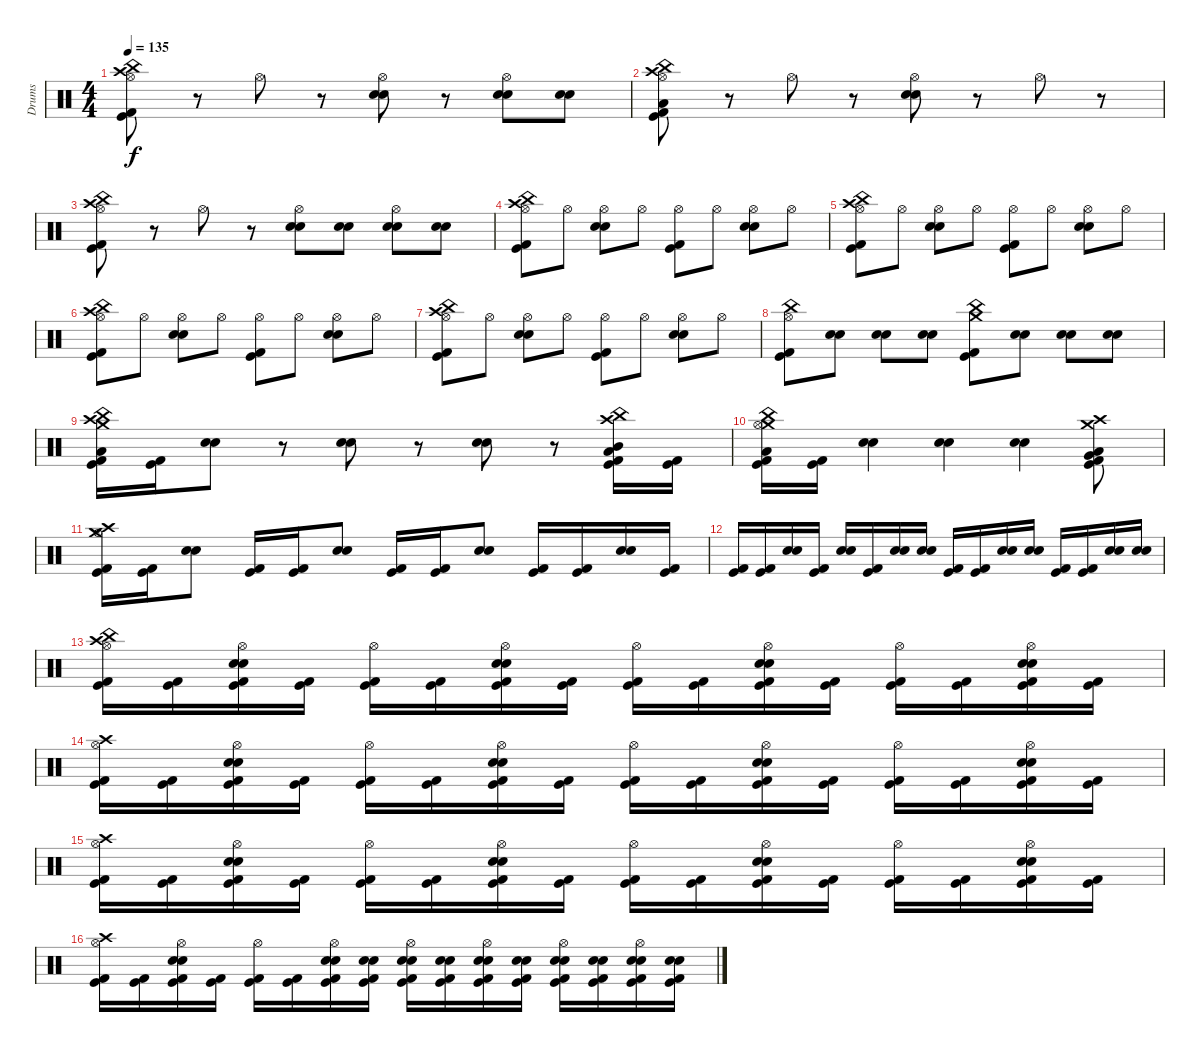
\track ("Drums" "Drums") {instrument percussion}
\staff {score}
\articulation defaults
\ts (4 4)
\tempo 135
\clef neutral
\ks c
("Crash high (hit)" "Hi-Hat (open)" "China (hit)" "Kick (hit) 2" "Kick (hit)").8{dy f} r.8 "Hi-Hat (open)".8 r.8 ("Hi-Hat (open)" "Electric Snare (hit)" "Snare (hit) 2").8 r.8 ("Hi-Hat (open)" "Electric Snare (hit)" "Snare (hit) 2").8 ("Electric Snare (hit)" "Snare (hit) 2").8 |
("Crash high (hit)" "Hi-Hat (open)" "China (hit)" "Low Floor Tom (hit)" "Kick (hit) 2" "Kick (hit)").8 r.8 "Hi-Hat (open)".8 r.8 ("Hi-Hat (open)" "Electric Snare (hit)" "Snare (hit) 2").8 r.8 "Hi-Hat (open)".8 r.8 |
("Crash high (hit)" "Hi-Hat (open)" "China (hit)" "Kick (hit) 2" "Kick (hit)").8 r.8 "Hi-Hat (open)".8 r.8 ("Hi-Hat (open)" "Electric Snare (hit)" "Snare (hit) 2").8 ("Electric Snare (hit)" "Snare (hit) 2").8 ("Hi-Hat (open)" "Electric Snare (hit)" "Snare (hit) 2").8 ("Electric Snare (hit)" "Snare (hit) 2").8 |
("Crash high (hit)" "China (hit)" "Hi-Hat (open)" "Kick (hit)" "Kick (hit) 2").8 "Hi-Hat (open)".8 ("Hi-Hat (open)" "Electric Snare (hit)" "Snare (hit) 2").8 "Hi-Hat (open)".8 ("Hi-Hat (open)" "Kick (hit) 2" "Kick (hit)").8 "Hi-Hat (open)".8 ("Hi-Hat (open)" "Electric Snare (hit)" "Snare (hit) 2").8 "Hi-Hat (open)".8 |
("Crash high (hit)" "China (hit)" "Hi-Hat (open)" "Kick (hit)" "Kick (hit) 2").8 "Hi-Hat (open)".8 ("Hi-Hat (open)" "Electric Snare (hit)" "Snare (hit) 2").8 "Hi-Hat (open)".8 ("Hi-Hat (open)" "Kick (hit) 2" "Kick (hit)").8 "Hi-Hat (open)".8 ("Hi-Hat (open)" "Electric Snare (hit)" "Snare (hit) 2").8 "Hi-Hat (open)".8 |
("Crash high (hit)" "China (hit)" "Hi-Hat (open)" "Kick (hit)" "Kick (hit) 2").8 "Hi-Hat (open)".8 ("Hi-Hat (open)" "Electric Snare (hit)" "Snare (hit) 2").8 "Hi-Hat (open)".8 ("Hi-Hat (open)" "Kick (hit) 2" "Kick (hit)").8 "Hi-Hat (open)".8 ("Hi-Hat (open)" "Electric Snare (hit)" "Snare (hit) 2").8 "Hi-Hat (open)".8 |
("Crash high (hit)" "China (hit)" "Hi-Hat (open)" "Kick (hit)" "Kick (hit) 2").8 "Hi-Hat (open)".8 ("Hi-Hat (open)" "Electric Snare (hit)" "Snare (hit) 2").8 "Hi-Hat (open)".8 ("Hi-Hat (open)" "Kick (hit) 2" "Kick (hit)").8 "Hi-Hat (open)".8 ("Hi-Hat (open)" "Electric Snare (hit)" "Snare (hit) 2").8 "Hi-Hat (open)".8 |
("Hi-Hat (open)" "China (hit)" "Kick (hit) 2" "Kick (hit)").8 ("Snare (hit) 2" "Electric Snare (hit)").8 ("Snare (hit) 2" "Electric Snare (hit)").8 ("Snare (hit) 2" "Electric Snare (hit)").8 ("Crash medium (hit)" "China (hit)" "Kick (hit) 2" "Kick (hit)").8 ("Snare (hit) 2" "Electric Snare (hit)").8 ("Snare (hit) 2" "Electric Snare (hit)").8 ("Snare (hit) 2" "Electric Snare (hit)").8 |
("Low Floor Tom (hit)" "Crash medium (hit)" "Crash high (hit)" "China (hit)" "Kick (hit) 2" "Kick (hit)").16 ("Kick (hit) 2" "Kick (hit)").16 ("Electric Snare (hit)" "Snare (hit) 2").8 r.8 ("Electric Snare (hit)" "Snare (hit) 2").8 r.8 ("Electric Snare (hit)" "Snare (hit) 2").8 r.8 ("Crash high (hit)" "China (hit)" "Mid Tom (hit)" "Low Tom (hit)" "Kick (hit) 2" "Kick (hit)").16 ("Kick (hit) 2" "Kick (hit)").16 |
("Crash medium (hit)" "China (hit)" "Hi-Hat (open)" "Low Tom (hit)" "Kick (hit) 2" "Kick (hit)").16 ("Kick (hit)" "Kick (hit) 2").16 ("Electric Snare (hit)" "Snare (hit) 2").4 ("Electric Snare (hit)" "Snare (hit) 2").4 ("Electric Snare (hit)" "Snare (hit) 2").4 ("Crash medium (hit)" "Crash high (hit)" "Very Low Tom (hit)" "Low Tom (hit)" "Kick (hit) 2" "Kick (hit)").8 |
("Crash high (hit)" "Crash medium (hit)" "Hi-Hat (open)" "Kick (hit) 2" "Kick (hit)").16 ("Kick (hit)" "Kick (hit) 2").16 ("Electric Snare (hit)" "Snare (hit) 2").8 ("Kick (hit) 2" "Kick (hit)").16 ("Kick (hit)" "Kick (hit) 2").16 ("Snare (hit) 2" "Electric Snare (hit)").8 ("Kick (hit) 2" "Kick (hit)").16 ("Kick (hit) 2" "Kick (hit)").16 ("Electric Snare (hit)" "Snare (hit) 2").8 ("Kick (hit) 2" "Kick (hit)").16 ("Kick (hit)" "Kick (hit) 2").16 ("Electric Snare (hit)" "Snare (hit) 2").16 ("Kick (hit)" "Kick (hit) 2").16 |
("Kick (hit)" "Kick (hit) 2").16 ("Kick (hit) 2" "Kick (hit)").16 ("Electric Snare (hit)" "Snare (hit) 2").16 ("Kick (hit) 2" "Kick (hit)").16 ("Electric Snare (hit)" "Snare (hit) 2").16 ("Kick (hit) 2" "Kick (hit)").16 ("Electric Snare (hit)" "Snare (hit) 2").16 ("Snare (hit) 2" "Electric Snare (hit)").16 ("Kick (hit) 2" "Kick (hit)").16 ("Kick (hit)" "Kick (hit) 2").16 ("Electric Snare (hit)" "Snare (hit) 2").16 ("Electric Snare (hit)" "Snare (hit) 2").16 ("Kick (hit)" "Kick (hit) 2").16 ("Kick (hit) 2" "Kick (hit)").16 ("Electric Snare (hit)" "Snare (hit) 2").16 ("Electric Snare (hit)" "Snare (hit) 2").16 |
("Crash high (hit)" "Hi-Hat (open)" "China (hit)" "Kick (hit) 2" "Kick (hit)").16 ("Kick (hit) 2" "Kick (hit)").16 ("Hi-Hat (open)" "Electric Snare (hit)" "Snare (hit) 2" "Kick (hit) 2" "Kick (hit)").16 ("Kick (hit) 2" "Kick (hit)").16 ("Hi-Hat (open)" "Kick (hit) 2" "Kick (hit)").16 ("Kick (hit) 2" "Kick (hit)").16 ("Hi-Hat (open)" "Snare (hit) 2" "Electric Snare (hit)" "Kick (hit) 2" "Kick (hit)").16 ("Kick (hit) 2" "Kick (hit)").16 ("Hi-Hat (open)" "Kick (hit) 2" "Kick (hit)").16 ("Kick (hit) 2" "Kick (hit)").16 ("Hi-Hat (open)" "Snare (hit) 2" "Electric Snare (hit)" "Kick (hit) 2" "Kick (hit)").16 ("Kick (hit) 2" "Kick (hit)").16 ("Hi-Hat (open)" "Kick (hit) 2" "Kick (hit)").16 ("Kick (hit) 2" "Kick (hit)").16 ("Hi-Hat (open)" "Snare (hit) 2" "Electric Snare (hit)" "Kick (hit) 2" "Kick (hit)").16 ("Kick (hit) 2" "Kick (hit)").16 |
("Crash high (hit)" "Hi-Hat (open)" "Kick (hit) 2" "Kick (hit)").16 ("Kick (hit) 2" "Kick (hit)").16 ("Hi-Hat (open)" "Electric Snare (hit)" "Snare (hit) 2" "Kick (hit) 2" "Kick (hit)").16 ("Kick (hit) 2" "Kick (hit)").16 ("Hi-Hat (open)" "Kick (hit) 2" "Kick (hit)").16 ("Kick (hit) 2" "Kick (hit)").16 ("Hi-Hat (open)" "Snare (hit) 2" "Electric Snare (hit)" "Kick (hit) 2" "Kick (hit)").16 ("Kick (hit) 2" "Kick (hit)").16 ("Hi-Hat (open)" "Kick (hit) 2" "Kick (hit)").16 ("Kick (hit) 2" "Kick (hit)").16 ("Hi-Hat (open)" "Snare (hit) 2" "Electric Snare (hit)" "Kick (hit) 2" "Kick (hit)").16 ("Kick (hit) 2" "Kick (hit)").16 ("Hi-Hat (open)" "Kick (hit) 2" "Kick (hit)").16 ("Kick (hit) 2" "Kick (hit)").16 ("Hi-Hat (open)" "Snare (hit) 2" "Electric Snare (hit)" "Kick (hit) 2" "Kick (hit)").16 ("Kick (hit) 2" "Kick (hit)").16 |
("Crash high (hit)" "Hi-Hat (open)" "Kick (hit) 2" "Kick (hit)").16 ("Kick (hit) 2" "Kick (hit)").16 ("Hi-Hat (open)" "Electric Snare (hit)" "Snare (hit) 2" "Kick (hit) 2" "Kick (hit)").16 ("Kick (hit) 2" "Kick (hit)").16 ("Hi-Hat (open)" "Kick (hit) 2" "Kick (hit)").16 ("Kick (hit) 2" "Kick (hit)").16 ("Hi-Hat (open)" "Snare (hit) 2" "Electric Snare (hit)" "Kick (hit) 2" "Kick (hit)").16 ("Kick (hit) 2" "Kick (hit)").16 ("Hi-Hat (open)" "Kick (hit) 2" "Kick (hit)").16 ("Kick (hit) 2" "Kick (hit)").16 ("Hi-Hat (open)" "Snare (hit) 2" "Electric Snare (hit)" "Kick (hit) 2" "Kick (hit)").16 ("Kick (hit) 2" "Kick (hit)").16 ("Hi-Hat (open)" "Kick (hit) 2" "Kick (hit)").16 ("Kick (hit) 2" "Kick (hit)").16 ("Hi-Hat (open)" "Snare (hit) 2" "Electric Snare (hit)" "Kick (hit) 2" "Kick (hit)").16 ("Kick (hit) 2" "Kick (hit)").16 |
("Crash high (hit)" "Hi-Hat (open)" "Kick (hit) 2" "Kick (hit)").16 ("Kick (hit) 2" "Kick (hit)").16 ("Hi-Hat (open)" "Electric Snare (hit)" "Snare (hit) 2" "Kick (hit) 2" "Kick (hit)").16 ("Kick (hit) 2" "Kick (hit)").16 ("Hi-Hat (open)" "Kick (hit) 2" "Kick (hit)").16 ("Kick (hit) 2" "Kick (hit)").16 ("Hi-Hat (open)" "Snare (hit) 2" "Electric Snare (hit)" "Kick (hit) 2" "Kick (hit)").16 ("Electric Snare (hit)" "Snare (hit) 2" "Kick (hit) 2" "Kick (hit)").16 ("Hi-Hat (open)" "Electric Snare (hit)" "Snare (hit) 2" "Kick (hit) 2" "Kick (hit)").16 ("Electric Snare (hit)" "Snare (hit) 2" "Kick (hit) 2" "Kick (hit)").16 ("Hi-Hat (open)" "Snare (hit) 2" "Electric Snare (hit)" "Kick (hit) 2" "Kick (hit)").16 ("Snare (hit) 2" "Electric Snare (hit)" "Kick (hit) 2" "Kick (hit)").16 ("Hi-Hat (open)" "Snare (hit) 2" "Electric Snare (hit)" "Kick (hit) 2" "Kick (hit)").16 ("Snare (hit) 2" "Electric Snare (hit)" "Kick (hit) 2" "Kick (hit)").16 ("Hi-Hat (open)" "Snare (hit) 2" "Electric Snare (hit)" "Kick (hit) 2" "Kick (hit)").16 ("Snare (hit) 2" "Electric Snare (hit)" "Kick (hit) 2" "Kick (hit)").16
